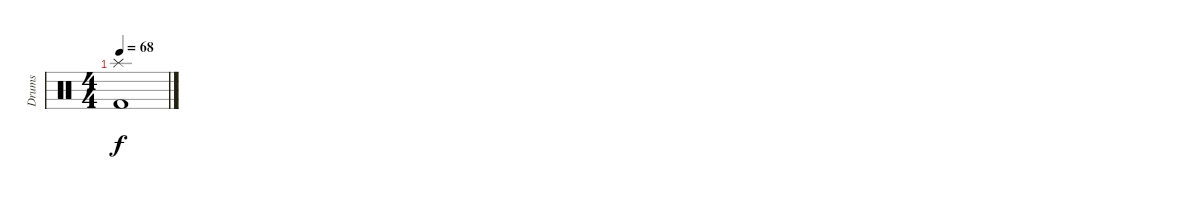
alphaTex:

\track ("Drums" "Drums") {instrument percussion}
\staff {score}
\articulation defaults
\ts (4 4)
\tempo 68
\clef neutral
\ks c
("Splash (hit)" "Kick (hit) 2").1{dy f}
